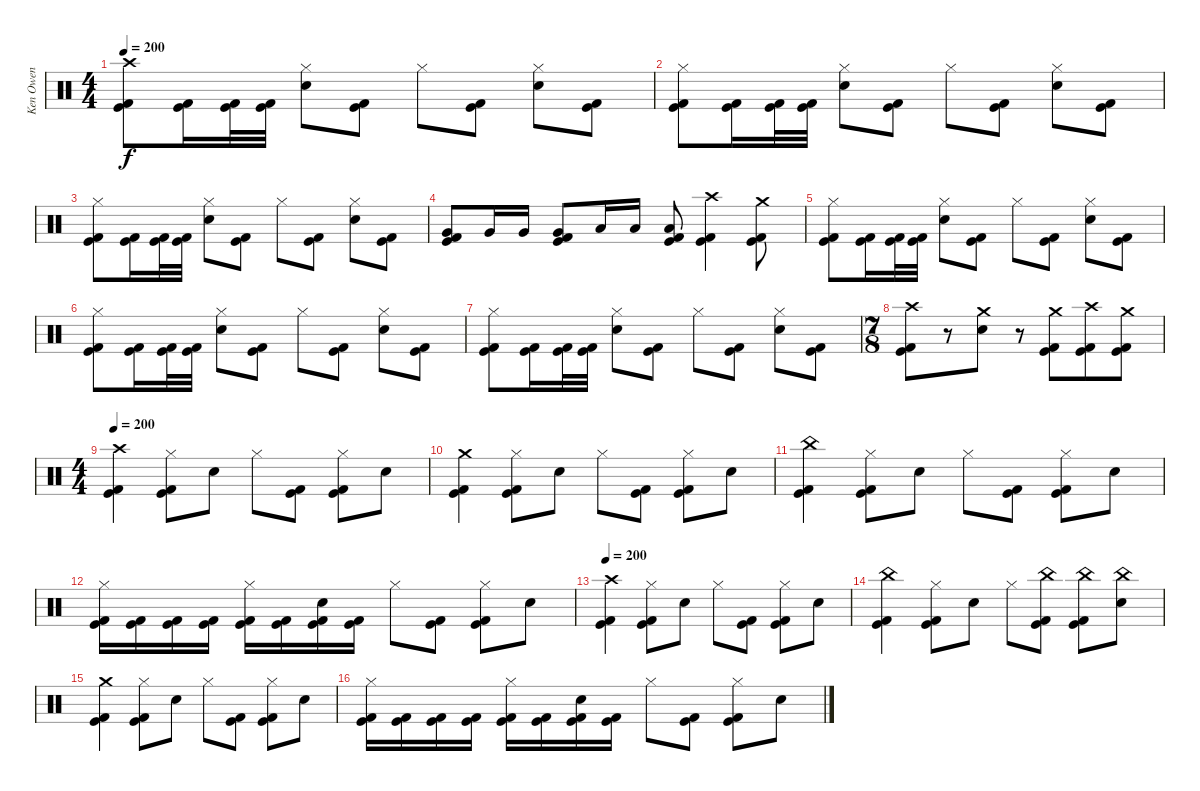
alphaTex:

\track ("Ken Owen" "Ken Owen") {instrument percussion}
\staff {score}
\articulation defaults
\ts (4 4)
\tempo 200
\clef neutral
\ks c
("Crash high (hit)" "Kick (hit)" "Kick (hit) 2").8{dy f} ("Kick (hit)" "Kick (hit) 2").16 ("Kick (hit)" "Kick (hit) 2").32 ("Kick (hit)" "Kick (hit) 2").32 ("Hi-Hat (closed)" "Electric Snare (hit)").8 ("Kick (hit)" "Kick (hit) 2").8 "Hi-Hat (closed)".8 ("Kick (hit)" "Kick (hit) 2").8 ("Hi-Hat (closed)" "Electric Snare (hit)").8 ("Kick (hit)" "Kick (hit) 2").8 |
("Hi-Hat (closed)" "Kick (hit)" "Kick (hit) 2").8 ("Kick (hit)" "Kick (hit) 2").16 ("Kick (hit)" "Kick (hit) 2").32 ("Kick (hit)" "Kick (hit) 2").32 ("Hi-Hat (closed)" "Electric Snare (hit)").8 ("Kick (hit)" "Kick (hit) 2").8 "Hi-Hat (closed)".8 ("Kick (hit)" "Kick (hit) 2").8 ("Hi-Hat (closed)" "Electric Snare (hit)").8 ("Kick (hit) 2" "Kick (hit)").8 |
("Hi-Hat (closed)" "Kick (hit)" "Kick (hit) 2").8 ("Kick (hit)" "Kick (hit) 2").16 ("Kick (hit)" "Kick (hit) 2").32 ("Kick (hit)" "Kick (hit) 2").32 ("Hi-Hat (closed)" "Electric Snare (hit)").8 ("Kick (hit)" "Kick (hit) 2").8 "Hi-Hat (closed)".8 ("Kick (hit)" "Kick (hit) 2").8 ("Hi-Hat (closed)" "Electric Snare (hit)").8 ("Kick (hit) 2" "Kick (hit)").8 |
("Very Low Tom (hit)" "Kick (hit)" "Kick (hit) 2").8 "Very Low Tom (hit)".16 "Very Low Tom (hit)".16 ("Very Low Tom (hit)" "Kick (hit)" "Kick (hit) 2").8 "Low Floor Tom (hit)".16 "Low Floor Tom (hit)".16 ("Low Floor Tom (hit)" "Kick (hit)" "Kick (hit) 2").8 ("Crash high (hit)" "Kick (hit)" "Kick (hit) 2").4 ("Crash medium (hit)" "Kick (hit)" "Kick (hit) 2").8 |
("Hi-Hat (closed)" "Kick (hit)" "Kick (hit) 2").8 ("Kick (hit)" "Kick (hit) 2").16 ("Kick (hit)" "Kick (hit) 2").32 ("Kick (hit)" "Kick (hit) 2").32 ("Hi-Hat (closed)" "Electric Snare (hit)").8 ("Kick (hit)" "Kick (hit) 2").8 "Hi-Hat (closed)".8 ("Kick (hit)" "Kick (hit) 2").8 ("Hi-Hat (closed)" "Electric Snare (hit)").8 ("Kick (hit)" "Kick (hit) 2").8 |
("Hi-Hat (closed)" "Kick (hit)" "Kick (hit) 2").8 ("Kick (hit)" "Kick (hit) 2").16 ("Kick (hit)" "Kick (hit) 2").32 ("Kick (hit)" "Kick (hit) 2").32 ("Hi-Hat (closed)" "Electric Snare (hit)").8 ("Kick (hit)" "Kick (hit) 2").8 "Hi-Hat (closed)".8 ("Kick (hit)" "Kick (hit) 2").8 ("Hi-Hat (closed)" "Electric Snare (hit)").8 ("Kick (hit) 2" "Kick (hit)").8 |
("Hi-Hat (closed)" "Kick (hit)" "Kick (hit) 2").8 ("Kick (hit)" "Kick (hit) 2").16 ("Kick (hit)" "Kick (hit) 2").32 ("Kick (hit)" "Kick (hit) 2").32 ("Hi-Hat (closed)" "Electric Snare (hit)").8 ("Kick (hit)" "Kick (hit) 2").8 "Hi-Hat (closed)".8 ("Kick (hit)" "Kick (hit) 2").8 ("Hi-Hat (closed)" "Electric Snare (hit)").8 ("Kick (hit) 2" "Kick (hit)").8 |
\ts (7 8)
("Crash high (hit)" "Kick (hit)" "Kick (hit) 2").8 r.8 ("Crash medium (hit)" "Electric Snare (hit)").8 r.8 ("Crash medium (hit)" "Kick (hit)" "Kick (hit) 2").8 ("Crash high (hit)" "Kick (hit)" "Kick (hit) 2").8 ("Crash medium (hit)" "Kick (hit)" "Kick (hit) 2").8 |
\ts (4 4)
\tempo 200
("Crash high (hit)" "Kick (hit)" "Kick (hit) 2").4 ("Hi-Hat (closed)" "Kick (hit)" "Kick (hit) 2").8 "Electric Snare (hit)".8 "Hi-Hat (closed)".8 ("Kick (hit)" "Kick (hit) 2").8 ("Hi-Hat (closed)" "Kick (hit)" "Kick (hit) 2").8 "Electric Snare (hit)".8 |
("Crash medium (hit)" "Kick (hit)" "Kick (hit) 2").4 ("Hi-Hat (closed)" "Kick (hit)" "Kick (hit) 2").8 "Electric Snare (hit)".8 "Hi-Hat (closed)".8 ("Kick (hit)" "Kick (hit) 2").8 ("Hi-Hat (closed)" "Kick (hit)" "Kick (hit) 2").8 "Electric Snare (hit)".8 |
("China (hit)" "Kick (hit)" "Kick (hit) 2").4 ("Hi-Hat (closed)" "Kick (hit)" "Kick (hit) 2").8 "Electric Snare (hit)".8 "Hi-Hat (closed)".8 ("Kick (hit)" "Kick (hit) 2").8 ("Hi-Hat (closed)" "Kick (hit)" "Kick (hit) 2").8 "Electric Snare (hit)".8 |
("Hi-Hat (closed)" "Kick (hit)" "Kick (hit) 2").16 ("Kick (hit)" "Kick (hit) 2").16 ("Kick (hit)" "Kick (hit) 2").16 ("Kick (hit)" "Kick (hit) 2").16 ("Hi-Hat (closed)" "Kick (hit)" "Kick (hit) 2").16 ("Kick (hit)" "Kick (hit) 2").16 ("Electric Snare (hit)" "Kick (hit)" "Kick (hit) 2").16 ("Kick (hit)" "Kick (hit) 2").16 "Hi-Hat (closed)".8 ("Kick (hit)" "Kick (hit) 2").8 ("Hi-Hat (closed)" "Kick (hit)" "Kick (hit) 2").8 "Electric Snare (hit)".8 |
\tempo 200
("Crash high (hit)" "Kick (hit)" "Kick (hit) 2").4 ("Hi-Hat (closed)" "Kick (hit)" "Kick (hit) 2").8 "Electric Snare (hit)".8 "Hi-Hat (closed)".8 ("Kick (hit)" "Kick (hit) 2").8 ("Hi-Hat (closed)" "Kick (hit)" "Kick (hit) 2").8 "Electric Snare (hit)".8 |
("China (hit)" "Kick (hit)" "Kick (hit) 2").4 ("Hi-Hat (closed)" "Kick (hit)" "Kick (hit) 2").8 "Electric Snare (hit)".8 "Hi-Hat (closed)".8 ("China (hit)" "Kick (hit)" "Kick (hit) 2").8 ("China (hit)" "Kick (hit)" "Kick (hit) 2").8 ("China (hit)" "Electric Snare (hit)").8 |
("Crash medium (hit)" "Kick (hit)" "Kick (hit) 2").4 ("Hi-Hat (closed)" "Kick (hit)" "Kick (hit) 2").8 "Electric Snare (hit)".8 "Hi-Hat (closed)".8 ("Kick (hit)" "Kick (hit) 2").8 ("Hi-Hat (closed)" "Kick (hit)" "Kick (hit) 2").8 "Electric Snare (hit)".8 |
("Hi-Hat (closed)" "Kick (hit)" "Kick (hit) 2").16 ("Kick (hit)" "Kick (hit) 2").16 ("Kick (hit)" "Kick (hit) 2").16 ("Kick (hit)" "Kick (hit) 2").16 ("Hi-Hat (closed)" "Kick (hit)" "Kick (hit) 2").16 ("Kick (hit)" "Kick (hit) 2").16 ("Electric Snare (hit)" "Kick (hit)" "Kick (hit) 2").16 ("Kick (hit)" "Kick (hit) 2").16 "Hi-Hat (closed)".8 ("Kick (hit)" "Kick (hit) 2").8 ("Hi-Hat (closed)" "Kick (hit)" "Kick (hit) 2").8 "Electric Snare (hit)".8
